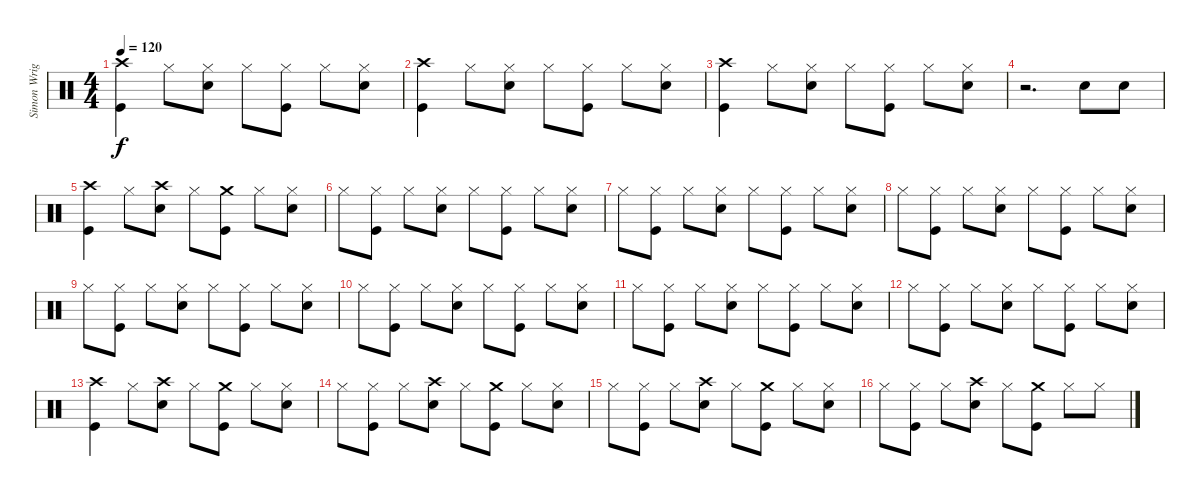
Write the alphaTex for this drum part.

\track ("Simon Wright" "Simon Wrig") {instrument percussion}
\staff {score}
\articulation defaults
\ts (4 4)
\tempo 120
\clef neutral
\ks c
("Crash high (hit)" "Kick (hit)").4{dy f} "Hi-Hat (closed)".8 ("Hi-Hat (closed)" "Electric Snare (hit)").8 "Hi-Hat (closed)".8 ("Hi-Hat (closed)" "Kick (hit)").8 "Hi-Hat (closed)".8 ("Hi-Hat (closed)" "Electric Snare (hit)").8 |
("Crash high (hit)" "Kick (hit)").4 "Hi-Hat (closed)".8 ("Hi-Hat (closed)" "Electric Snare (hit)").8 "Hi-Hat (closed)".8 ("Hi-Hat (closed)" "Kick (hit)").8 "Hi-Hat (closed)".8 ("Hi-Hat (closed)" "Electric Snare (hit)").8 |
("Crash high (hit)" "Kick (hit)").4 "Hi-Hat (closed)".8 ("Hi-Hat (closed)" "Electric Snare (hit)").8 "Hi-Hat (closed)".8 ("Hi-Hat (closed)" "Kick (hit)").8 "Hi-Hat (closed)".8 ("Hi-Hat (closed)" "Electric Snare (hit)").8 |
r.2{d} "Electric Snare (hit)".8 "Electric Snare (hit)".8 |
("Crash high (hit)" "Kick (hit)").4 "Hi-Hat (closed)".8 ("Crash high (hit)" "Electric Snare (hit)").8 "Hi-Hat (closed)".8 ("Crash medium (hit)" "Kick (hit)").8 "Hi-Hat (closed)".8 ("Hi-Hat (closed)" "Electric Snare (hit)").8 |
"Hi-Hat (closed)".8 ("Hi-Hat (closed)" "Kick (hit)").8 "Hi-Hat (closed)".8 ("Hi-Hat (closed)" "Electric Snare (hit)").8 "Hi-Hat (closed)".8 ("Hi-Hat (closed)" "Kick (hit)").8 "Hi-Hat (closed)".8 ("Hi-Hat (closed)" "Electric Snare (hit)").8 |
"Hi-Hat (closed)".8 ("Hi-Hat (closed)" "Kick (hit)").8 "Hi-Hat (closed)".8 ("Hi-Hat (closed)" "Electric Snare (hit)").8 "Hi-Hat (closed)".8 ("Hi-Hat (closed)" "Kick (hit)").8 "Hi-Hat (closed)".8 ("Hi-Hat (closed)" "Electric Snare (hit)").8 |
"Hi-Hat (closed)".8 ("Hi-Hat (closed)" "Kick (hit)").8 "Hi-Hat (closed)".8 ("Hi-Hat (closed)" "Electric Snare (hit)").8 "Hi-Hat (closed)".8 ("Hi-Hat (closed)" "Kick (hit)").8 "Hi-Hat (closed)".8 ("Hi-Hat (closed)" "Electric Snare (hit)").8 |
"Hi-Hat (closed)".8 ("Hi-Hat (closed)" "Kick (hit)").8 "Hi-Hat (closed)".8 ("Hi-Hat (closed)" "Electric Snare (hit)").8 "Hi-Hat (closed)".8 ("Hi-Hat (closed)" "Kick (hit)").8 "Hi-Hat (closed)".8 ("Hi-Hat (closed)" "Electric Snare (hit)").8 |
"Hi-Hat (closed)".8 ("Hi-Hat (closed)" "Kick (hit)").8 "Hi-Hat (closed)".8 ("Hi-Hat (closed)" "Electric Snare (hit)").8 "Hi-Hat (closed)".8 ("Hi-Hat (closed)" "Kick (hit)").8 "Hi-Hat (closed)".8 ("Hi-Hat (closed)" "Electric Snare (hit)").8 |
"Hi-Hat (closed)".8 ("Hi-Hat (closed)" "Kick (hit)").8 "Hi-Hat (closed)".8 ("Hi-Hat (closed)" "Electric Snare (hit)").8 "Hi-Hat (closed)".8 ("Hi-Hat (closed)" "Kick (hit)").8 "Hi-Hat (closed)".8 ("Hi-Hat (closed)" "Electric Snare (hit)").8 |
"Hi-Hat (closed)".8 ("Hi-Hat (closed)" "Kick (hit)").8 "Hi-Hat (closed)".8 ("Hi-Hat (closed)" "Electric Snare (hit)").8 "Hi-Hat (closed)".8 ("Hi-Hat (closed)" "Kick (hit)").8 "Hi-Hat (closed)".8 ("Hi-Hat (closed)" "Electric Snare (hit)").8 |
("Crash high (hit)" "Kick (hit)").4 "Hi-Hat (closed)".8 ("Crash high (hit)" "Electric Snare (hit)").8 "Hi-Hat (closed)".8 ("Crash medium (hit)" "Kick (hit)").8 "Hi-Hat (closed)".8 ("Hi-Hat (closed)" "Electric Snare (hit)").8 |
"Hi-Hat (closed)".8 ("Hi-Hat (closed)" "Kick (hit)").8 "Hi-Hat (closed)".8 ("Crash high (hit)" "Electric Snare (hit)").8 "Hi-Hat (closed)".8 ("Crash medium (hit)" "Kick (hit)").8 "Hi-Hat (closed)".8 ("Hi-Hat (closed)" "Electric Snare (hit)").8 |
"Hi-Hat (closed)".8 ("Hi-Hat (closed)" "Kick (hit)").8 "Hi-Hat (closed)".8 ("Crash high (hit)" "Electric Snare (hit)").8 "Hi-Hat (closed)".8 ("Crash medium (hit)" "Kick (hit)").8 "Hi-Hat (closed)".8 ("Hi-Hat (closed)" "Electric Snare (hit)").8 |
"Hi-Hat (closed)".8 ("Hi-Hat (closed)" "Kick (hit)").8 "Hi-Hat (closed)".8 ("Crash high (hit)" "Electric Snare (hit)").8 "Hi-Hat (closed)".8 ("Crash medium (hit)" "Kick (hit)").8 "Hi-Hat (closed)".8 "Hi-Hat (closed)".8
